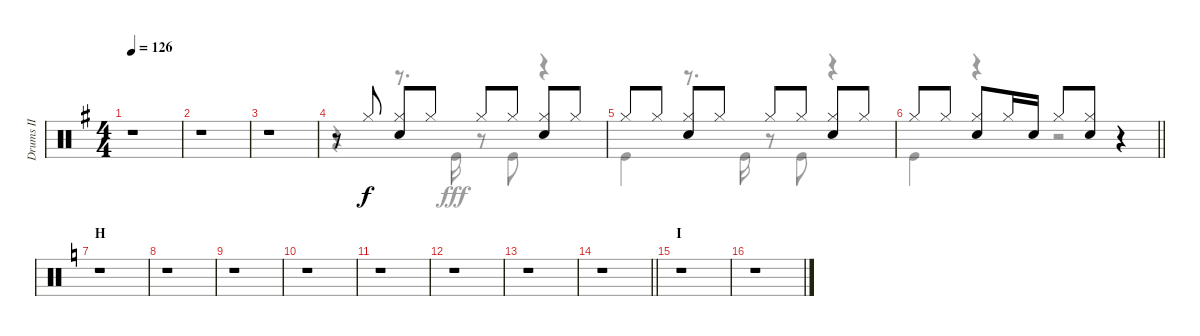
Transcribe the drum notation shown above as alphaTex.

\track ("Drums II" "Drums II") {instrument percussion}
\staff {score}
\articulation defaults
\voice
\ts (4 4)
\tempo 126
\clef neutral
\ks g
r.1{dy f} |
r.1 |
r.1 |
r.8 "Hi-Hat (closed)".8 ("Hi-Hat (closed)" "Snare (hit) 2").8 "Hi-Hat (closed)".8 "Hi-Hat (closed)".8 "Hi-Hat (closed)".8 ("Hi-Hat (closed)" "Snare (hit) 2").8 "Hi-Hat (closed)".8 |
"Hi-Hat (closed)".8 "Hi-Hat (closed)".8 ("Hi-Hat (closed)" "Snare (hit) 2").8 "Hi-Hat (closed)".8 "Hi-Hat (closed)".8 "Hi-Hat (closed)".8 ("Hi-Hat (closed)" "Snare (hit) 2").8 "Hi-Hat (closed)".8 |
\barLineRight lightlight "Hi-Hat (closed)".8 "Hi-Hat (closed)".8
("Hi-Hat (closed)" "Snare (hit) 2").8 "Hi-Hat (closed)".16 "Snare (hit) 2".16 "Hi-Hat (closed)".8 ("Hi-Hat (closed)" "Snare (hit) 2").8 r.4 |
\section ("" "H")
\ks c
r.1 |
r.1 |
r.1 |
r.1 |
r.1 |
r.1 |
r.1 |
\barLineRight lightlight
r.1 |
\section ("" "I")
r.1 |
r.1
\voice
\clef neutral
\ottava regular
\simile none
\ks g
r.1{dy fff} |
r.1 |
r.1 |
r.4 r.8{d} "Kick (hit)".16 r.8 "Kick (hit)".8 r.4 |
"Kick (hit)".4 r.8{d} "Kick (hit)".16 r.8 "Kick (hit)".8 r.4 |
\barLineRight lightlight "Kick (hit)".4
r.4 r.2 |
\ks c
r.1 |
r.1 |
r.1 |
r.1 |
r.1 |
r.1 |
r.1 |
\barLineRight lightlight
r.1 |
r.1 |
r.1
